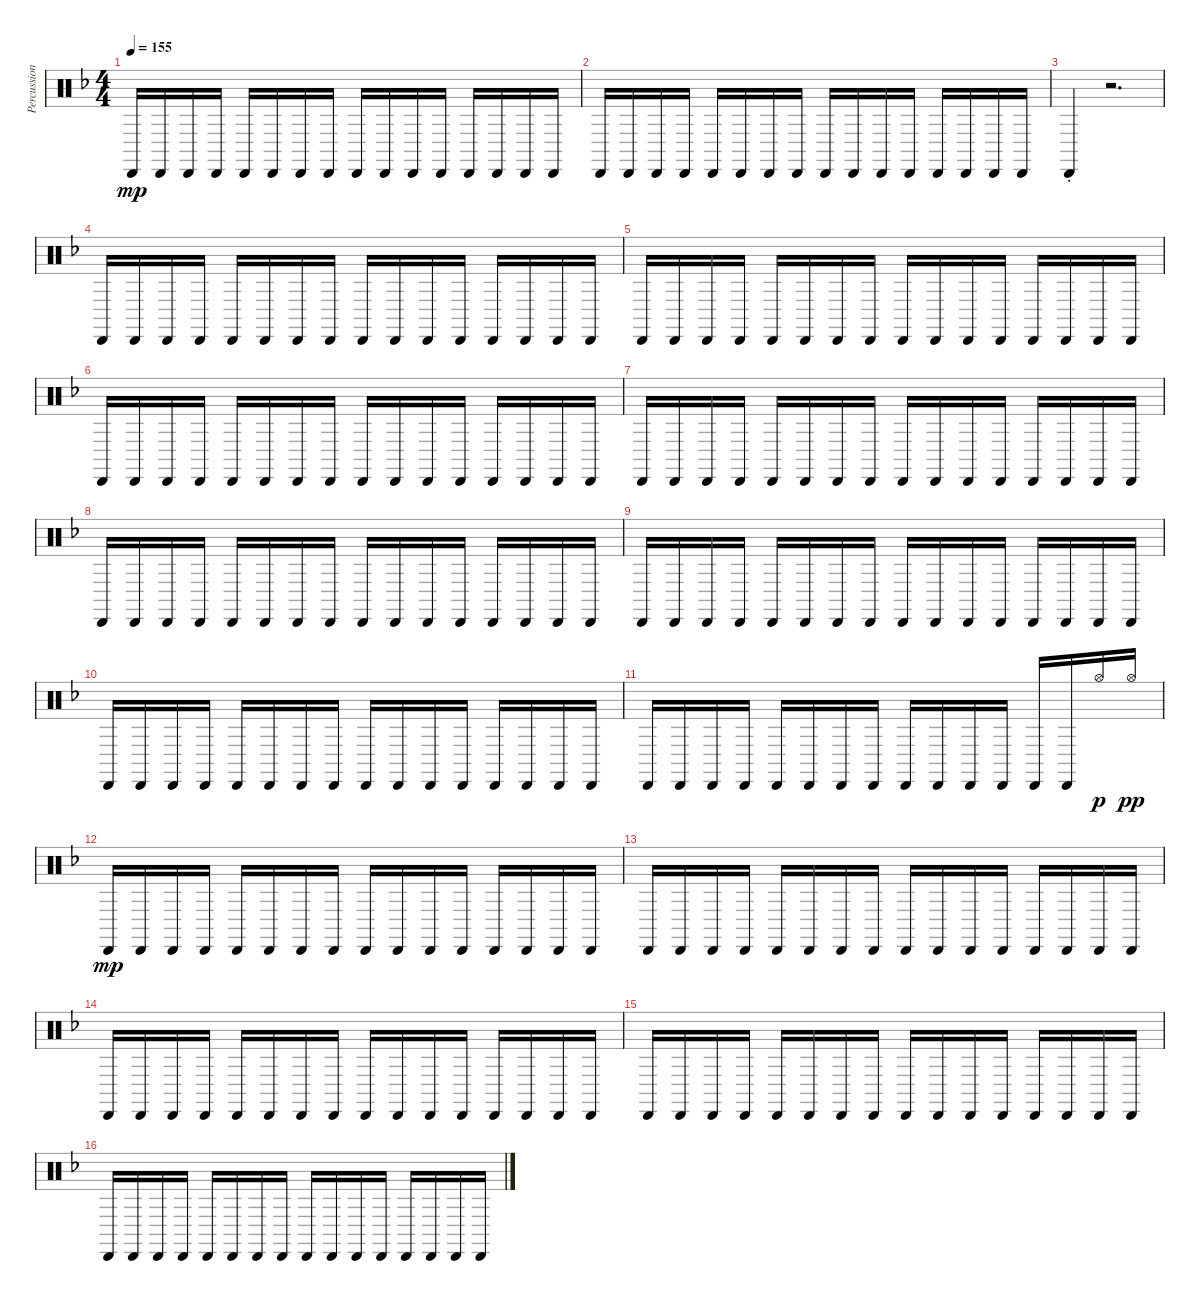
\track ("Percussion" "Percussion") {instrument percussion}
\staff {score}
\articulation defaults
\ts (4 4)
\tempo 155
\clef neutral
\ks dminor "Cabasa (hit)".16{dy mp} "Cabasa (hit)".16 "Cabasa (hit)".16 "Cabasa (hit)".16 "Cabasa (hit)".16 "Cabasa (hit)".16 "Cabasa (hit)".16 "Cabasa (hit)".16 "Cabasa (hit)".16 "Cabasa (hit)".16 "Cabasa (hit)".16 "Cabasa (hit)".16 "Cabasa (hit)".16 "Cabasa (hit)".16 "Cabasa (hit)".16 "Cabasa (hit)".16
|
"Cabasa (hit)".16 "Cabasa (hit)".16 "Cabasa (hit)".16 "Cabasa (hit)".16 "Cabasa (hit)".16 "Cabasa (hit)".16 "Cabasa (hit)".16 "Cabasa (hit)".16 "Cabasa (hit)".16 "Cabasa (hit)".16 "Cabasa (hit)".16 "Cabasa (hit)".16 "Cabasa (hit)".16 "Cabasa (hit)".16 "Cabasa (hit)".16 "Cabasa (hit)".16 |
"Cabasa (hit)"{st}.4 r.2{d} |
"Cabasa (hit)".16 "Cabasa (hit)".16 "Cabasa (hit)".16 "Cabasa (hit)".16 "Cabasa (hit)".16 "Cabasa (hit)".16 "Cabasa (hit)".16 "Cabasa (hit)".16 "Cabasa (hit)".16 "Cabasa (hit)".16 "Cabasa (hit)".16 "Cabasa (hit)".16 "Cabasa (hit)".16 "Cabasa (hit)".16 "Cabasa (hit)".16 "Cabasa (hit)".16 |
"Cabasa (hit)".16 "Cabasa (hit)".16 "Cabasa (hit)".16 "Cabasa (hit)".16 "Cabasa (hit)".16 "Cabasa (hit)".16 "Cabasa (hit)".16 "Cabasa (hit)".16 "Cabasa (hit)".16 "Cabasa (hit)".16 "Cabasa (hit)".16 "Cabasa (hit)".16 "Cabasa (hit)".16 "Cabasa (hit)".16 "Cabasa (hit)".16 "Cabasa (hit)".16 |
"Cabasa (hit)".16 "Cabasa (hit)".16 "Cabasa (hit)".16 "Cabasa (hit)".16 "Cabasa (hit)".16 "Cabasa (hit)".16 "Cabasa (hit)".16 "Cabasa (hit)".16 "Cabasa (hit)".16 "Cabasa (hit)".16 "Cabasa (hit)".16 "Cabasa (hit)".16 "Cabasa (hit)".16 "Cabasa (hit)".16 "Cabasa (hit)".16 "Cabasa (hit)".16 |
"Cabasa (hit)".16 "Cabasa (hit)".16 "Cabasa (hit)".16 "Cabasa (hit)".16 "Cabasa (hit)".16 "Cabasa (hit)".16 "Cabasa (hit)".16 "Cabasa (hit)".16 "Cabasa (hit)".16 "Cabasa (hit)".16 "Cabasa (hit)".16 "Cabasa (hit)".16 "Cabasa (hit)".16 "Cabasa (hit)".16 "Cabasa (hit)".16 "Cabasa (hit)".16 |
"Cabasa (hit)".16 "Cabasa (hit)".16 "Cabasa (hit)".16 "Cabasa (hit)".16 "Cabasa (hit)".16 "Cabasa (hit)".16 "Cabasa (hit)".16 "Cabasa (hit)".16 "Cabasa (hit)".16 "Cabasa (hit)".16 "Cabasa (hit)".16 "Cabasa (hit)".16 "Cabasa (hit)".16 "Cabasa (hit)".16 "Cabasa (hit)".16 "Cabasa (hit)".16 |
"Cabasa (hit)".16 "Cabasa (hit)".16 "Cabasa (hit)".16 "Cabasa (hit)".16 "Cabasa (hit)".16 "Cabasa (hit)".16 "Cabasa (hit)".16 "Cabasa (hit)".16 "Cabasa (hit)".16 "Cabasa (hit)".16 "Cabasa (hit)".16 "Cabasa (hit)".16 "Cabasa (hit)".16 "Cabasa (hit)".16 "Cabasa (hit)".16 "Cabasa (hit)".16 |
"Cabasa (hit)".16 "Cabasa (hit)".16 "Cabasa (hit)".16 "Cabasa (hit)".16 "Cabasa (hit)".16 "Cabasa (hit)".16 "Cabasa (hit)".16 "Cabasa (hit)".16 "Cabasa (hit)".16 "Cabasa (hit)".16 "Cabasa (hit)".16 "Cabasa (hit)".16 "Cabasa (hit)".16 "Cabasa (hit)".16 "Cabasa (hit)".16 "Cabasa (hit)".16 |
"Cabasa (hit)".16 "Cabasa (hit)".16 "Cabasa (hit)".16 "Cabasa (hit)".16 "Cabasa (hit)".16 "Cabasa (hit)".16 "Cabasa (hit)".16 "Cabasa (hit)".16 "Cabasa (hit)".16 "Cabasa (hit)".16 "Cabasa (hit)".16 "Cabasa (hit)".16 "Cabasa (hit)".16 "Cabasa (hit)".16 "Hi-Hat (open)".16{dy p} "Hi-Hat (open)".16{dy pp} |
"Cabasa (hit)".16{dy mp} "Cabasa (hit)".16 "Cabasa (hit)".16 "Cabasa (hit)".16 "Cabasa (hit)".16 "Cabasa (hit)".16 "Cabasa (hit)".16 "Cabasa (hit)".16 "Cabasa (hit)".16 "Cabasa (hit)".16 "Cabasa (hit)".16 "Cabasa (hit)".16 "Cabasa (hit)".16 "Cabasa (hit)".16 "Cabasa (hit)".16 "Cabasa (hit)".16 |
"Cabasa (hit)".16 "Cabasa (hit)".16 "Cabasa (hit)".16 "Cabasa (hit)".16 "Cabasa (hit)".16 "Cabasa (hit)".16 "Cabasa (hit)".16 "Cabasa (hit)".16 "Cabasa (hit)".16 "Cabasa (hit)".16 "Cabasa (hit)".16 "Cabasa (hit)".16 "Cabasa (hit)".16 "Cabasa (hit)".16 "Cabasa (hit)".16 "Cabasa (hit)".16 |
"Cabasa (hit)".16 "Cabasa (hit)".16 "Cabasa (hit)".16 "Cabasa (hit)".16 "Cabasa (hit)".16 "Cabasa (hit)".16 "Cabasa (hit)".16 "Cabasa (hit)".16 "Cabasa (hit)".16 "Cabasa (hit)".16 "Cabasa (hit)".16 "Cabasa (hit)".16 "Cabasa (hit)".16 "Cabasa (hit)".16 "Cabasa (hit)".16 "Cabasa (hit)".16 |
"Cabasa (hit)".16 "Cabasa (hit)".16 "Cabasa (hit)".16 "Cabasa (hit)".16 "Cabasa (hit)".16 "Cabasa (hit)".16 "Cabasa (hit)".16 "Cabasa (hit)".16 "Cabasa (hit)".16 "Cabasa (hit)".16 "Cabasa (hit)".16 "Cabasa (hit)".16 "Cabasa (hit)".16 "Cabasa (hit)".16 "Cabasa (hit)".16 "Cabasa (hit)".16 |
"Cabasa (hit)".16 "Cabasa (hit)".16 "Cabasa (hit)".16 "Cabasa (hit)".16 "Cabasa (hit)".16 "Cabasa (hit)".16 "Cabasa (hit)".16 "Cabasa (hit)".16 "Cabasa (hit)".16 "Cabasa (hit)".16 "Cabasa (hit)".16 "Cabasa (hit)".16 "Cabasa (hit)".16 "Cabasa (hit)".16 "Cabasa (hit)".16 "Cabasa (hit)".16
